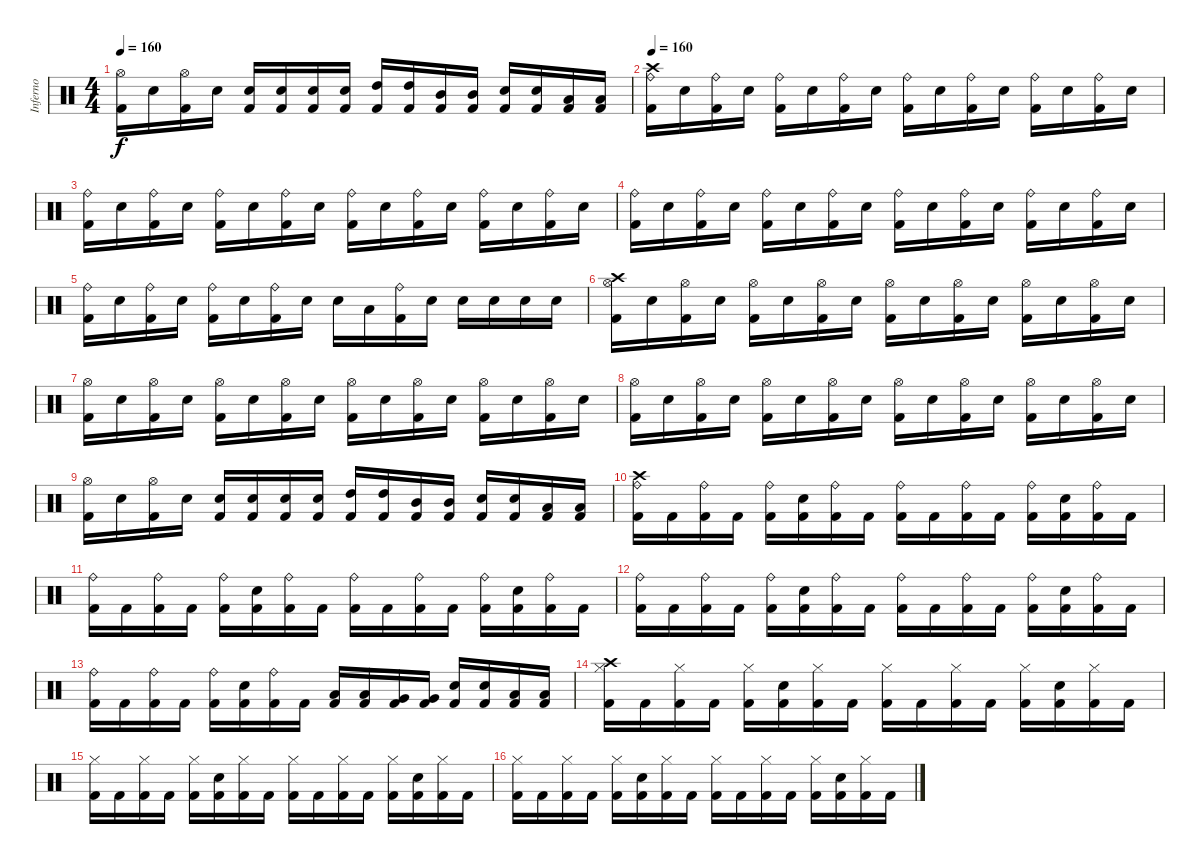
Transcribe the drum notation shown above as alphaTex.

\track ("Inferno" "Inferno") {instrument percussion}
\staff {score}
\articulation defaults
\ts (4 4)
\tempo 160
\clef neutral
\ks c
("Hi-Hat (open)" "Kick (hit) 2").16{dy f} "Electric Snare (hit)".16 ("Hi-Hat (open)" "Kick (hit) 2").16 "Electric Snare (hit)".16 ("Electric Snare (hit)" "Kick (hit) 2").16 ("Electric Snare (hit)" "Kick (hit) 2").16 ("Electric Snare (hit)" "Kick (hit) 2").16 ("Electric Snare (hit)" "Kick (hit) 2").16 ("High Tom (hit)" "Kick (hit) 2").16 ("High Tom (hit)" "Kick (hit) 2").16 ("Mid Tom (hit)" "Kick (hit) 2").16 ("Mid Tom (hit)" "Kick (hit) 2").16 ("Electric Snare (hit)" "Kick (hit) 2").16 ("Electric Snare (hit)" "Kick (hit) 2").16 ("Low Tom (hit)" "Kick (hit) 2").16 ("Low Tom (hit)" "Kick (hit) 2").16 |
\tempo 160
("Crash high (hit)" "Ride (bell)" "Kick (hit) 2").16 "Electric Snare (hit)".16 ("Ride (bell)" "Kick (hit) 2").16 "Electric Snare (hit)".16 ("Ride (bell)" "Kick (hit) 2").16 "Electric Snare (hit)".16 ("Ride (bell)" "Kick (hit) 2").16 "Electric Snare (hit)".16 ("Ride (bell)" "Kick (hit) 2").16 "Electric Snare (hit)".16 ("Ride (bell)" "Kick (hit) 2").16 "Electric Snare (hit)".16 ("Ride (bell)" "Kick (hit) 2").16 "Electric Snare (hit)".16 ("Ride (bell)" "Kick (hit) 2").16 "Electric Snare (hit)".16 |
("Ride (bell)" "Kick (hit) 2").16 "Electric Snare (hit)".16 ("Ride (bell)" "Kick (hit) 2").16 "Electric Snare (hit)".16 ("Ride (bell)" "Kick (hit) 2").16 "Electric Snare (hit)".16 ("Ride (bell)" "Kick (hit) 2").16 "Electric Snare (hit)".16 ("Ride (bell)" "Kick (hit) 2").16 "Electric Snare (hit)".16 ("Ride (bell)" "Kick (hit) 2").16 "Electric Snare (hit)".16 ("Ride (bell)" "Kick (hit) 2").16 "Electric Snare (hit)".16 ("Ride (bell)" "Kick (hit) 2").16 "Electric Snare (hit)".16 |
("Ride (bell)" "Kick (hit) 2").16 "Electric Snare (hit)".16 ("Ride (bell)" "Kick (hit) 2").16 "Electric Snare (hit)".16 ("Ride (bell)" "Kick (hit) 2").16 "Electric Snare (hit)".16 ("Ride (bell)" "Kick (hit) 2").16 "Electric Snare (hit)".16 ("Ride (bell)" "Kick (hit) 2").16 "Electric Snare (hit)".16 ("Ride (bell)" "Kick (hit) 2").16 "Electric Snare (hit)".16 ("Ride (bell)" "Kick (hit) 2").16 "Electric Snare (hit)".16 ("Ride (bell)" "Kick (hit) 2").16 "Electric Snare (hit)".16 |
("Ride (bell)" "Kick (hit) 2").16 "Electric Snare (hit)".16 ("Ride (bell)" "Kick (hit) 2").16 "Electric Snare (hit)".16 ("Ride (bell)" "Kick (hit) 2").16 "Electric Snare (hit)".16 ("Ride (bell)" "Kick (hit) 2").16 "Electric Snare (hit)".16 "Electric Snare (hit)".16 "Low Tom (hit)".16 ("Ride (bell)" "Kick (hit) 2").16 "Electric Snare (hit)".16 "Electric Snare (hit)".16 "Electric Snare (hit)".16 "Electric Snare (hit)".16 "Electric Snare (hit)".16 |
("Crash high (hit)" "Hi-Hat (open)" "Kick (hit) 2").16 "Electric Snare (hit)".16 ("Hi-Hat (open)" "Kick (hit) 2").16 "Electric Snare (hit)".16 ("Hi-Hat (open)" "Kick (hit) 2").16 "Electric Snare (hit)".16 ("Hi-Hat (open)" "Kick (hit) 2").16 "Electric Snare (hit)".16 ("Hi-Hat (open)" "Kick (hit) 2").16 "Electric Snare (hit)".16 ("Hi-Hat (open)" "Kick (hit) 2").16 "Electric Snare (hit)".16 ("Hi-Hat (open)" "Kick (hit) 2").16 "Electric Snare (hit)".16 ("Hi-Hat (open)" "Kick (hit) 2").16 "Electric Snare (hit)".16 |
("Hi-Hat (open)" "Kick (hit) 2").16 "Electric Snare (hit)".16 ("Hi-Hat (open)" "Kick (hit) 2").16 "Electric Snare (hit)".16 ("Hi-Hat (open)" "Kick (hit) 2").16 "Electric Snare (hit)".16 ("Hi-Hat (open)" "Kick (hit) 2").16 "Electric Snare (hit)".16 ("Hi-Hat (open)" "Kick (hit) 2").16 "Electric Snare (hit)".16 ("Hi-Hat (open)" "Kick (hit) 2").16 "Electric Snare (hit)".16 ("Hi-Hat (open)" "Kick (hit) 2").16 "Electric Snare (hit)".16 ("Hi-Hat (open)" "Kick (hit) 2").16 "Electric Snare (hit)".16 |
("Hi-Hat (open)" "Kick (hit) 2").16 "Electric Snare (hit)".16 ("Hi-Hat (open)" "Kick (hit) 2").16 "Electric Snare (hit)".16 ("Hi-Hat (open)" "Kick (hit) 2").16 "Electric Snare (hit)".16 ("Hi-Hat (open)" "Kick (hit) 2").16 "Electric Snare (hit)".16 ("Hi-Hat (open)" "Kick (hit) 2").16 "Electric Snare (hit)".16 ("Hi-Hat (open)" "Kick (hit) 2").16 "Electric Snare (hit)".16 ("Hi-Hat (open)" "Kick (hit) 2").16 "Electric Snare (hit)".16 ("Hi-Hat (open)" "Kick (hit) 2").16 "Electric Snare (hit)".16 |
("Hi-Hat (open)" "Kick (hit) 2").16 "Electric Snare (hit)".16 ("Hi-Hat (open)" "Kick (hit) 2").16 "Electric Snare (hit)".16 ("Electric Snare (hit)" "Kick (hit) 2").16 ("Electric Snare (hit)" "Kick (hit) 2").16 ("Electric Snare (hit)" "Kick (hit) 2").16 ("Electric Snare (hit)" "Kick (hit) 2").16 ("High Tom (hit)" "Kick (hit) 2").16 ("High Tom (hit)" "Kick (hit) 2").16 ("Mid Tom (hit)" "Kick (hit) 2").16 ("Mid Tom (hit)" "Kick (hit) 2").16 ("Electric Snare (hit)" "Kick (hit) 2").16 ("Electric Snare (hit)" "Kick (hit) 2").16 ("Low Tom (hit)" "Kick (hit) 2").16 ("Low Tom (hit)" "Kick (hit) 2").16 |
("Crash high (hit)" "Ride (bell)" "Kick (hit) 2").16 "Kick (hit) 2".16 ("Ride (bell)" "Kick (hit) 2").16 "Kick (hit) 2".16 ("Ride (bell)" "Kick (hit) 2").16 ("Electric Snare (hit)" "Kick (hit) 2").16 ("Ride (bell)" "Kick (hit) 2").16 "Kick (hit) 2".16 ("Ride (bell)" "Kick (hit) 2").16 "Kick (hit) 2".16 ("Ride (bell)" "Kick (hit) 2").16 "Kick (hit) 2".16 ("Ride (bell)" "Kick (hit) 2").16 ("Electric Snare (hit)" "Kick (hit) 2").16 ("Ride (bell)" "Kick (hit) 2").16 "Kick (hit) 2".16 |
("Ride (bell)" "Kick (hit) 2").16 "Kick (hit) 2".16 ("Ride (bell)" "Kick (hit) 2").16 "Kick (hit) 2".16 ("Ride (bell)" "Kick (hit) 2").16 ("Electric Snare (hit)" "Kick (hit) 2").16 ("Ride (bell)" "Kick (hit) 2").16 "Kick (hit) 2".16 ("Ride (bell)" "Kick (hit) 2").16 "Kick (hit) 2".16 ("Ride (bell)" "Kick (hit) 2").16 "Kick (hit) 2".16 ("Ride (bell)" "Kick (hit) 2").16 ("Electric Snare (hit)" "Kick (hit) 2").16 ("Ride (bell)" "Kick (hit) 2").16 "Kick (hit) 2".16 |
("Ride (bell)" "Kick (hit) 2").16 "Kick (hit) 2".16 ("Ride (bell)" "Kick (hit) 2").16 "Kick (hit) 2".16 ("Ride (bell)" "Kick (hit) 2").16 ("Electric Snare (hit)" "Kick (hit) 2").16 ("Ride (bell)" "Kick (hit) 2").16 "Kick (hit) 2".16 ("Ride (bell)" "Kick (hit) 2").16 "Kick (hit) 2".16 ("Ride (bell)" "Kick (hit) 2").16 "Kick (hit) 2".16 ("Ride (bell)" "Kick (hit) 2").16 ("Electric Snare (hit)" "Kick (hit) 2").16 ("Ride (bell)" "Kick (hit) 2").16 "Kick (hit) 2".16 |
("Ride (bell)" "Kick (hit) 2").16 "Kick (hit) 2".16 ("Ride (bell)" "Kick (hit) 2").16 "Kick (hit) 2".16 ("Ride (bell)" "Kick (hit) 2").16 ("Electric Snare (hit)" "Kick (hit) 2").16 ("Ride (bell)" "Kick (hit) 2").16 "Kick (hit) 2".16 ("Low Tom (hit)" "Kick (hit) 2").16 ("Low Tom (hit)" "Kick (hit) 2").16 ("Very Low Tom (hit)" "Kick (hit) 2").16 ("Very Low Tom (hit)" "Kick (hit) 2").16 ("Electric Snare (hit)" "Kick (hit) 2").16 ("Electric Snare (hit)" "Kick (hit) 2").16 ("Low Floor Tom (hit)" "Kick (hit) 2").16 ("Low Floor Tom (hit)" "Kick (hit) 2").16 |
("Crash high (hit)" "Hi-Hat (closed)" "Kick (hit) 2").16 "Kick (hit) 2".16 ("Hi-Hat (closed)" "Kick (hit) 2").16 "Kick (hit) 2".16 ("Hi-Hat (closed)" "Kick (hit) 2").16 ("Electric Snare (hit)" "Kick (hit) 2").16 ("Hi-Hat (closed)" "Kick (hit) 2").16 "Kick (hit) 2".16 ("Hi-Hat (closed)" "Kick (hit) 2").16 "Kick (hit) 2".16 ("Hi-Hat (closed)" "Kick (hit) 2").16 "Kick (hit) 2".16 ("Hi-Hat (closed)" "Kick (hit) 2").16 ("Electric Snare (hit)" "Kick (hit) 2").16 ("Hi-Hat (closed)" "Kick (hit) 2").16 "Kick (hit) 2".16 |
("Hi-Hat (closed)" "Kick (hit) 2").16 "Kick (hit) 2".16 ("Hi-Hat (closed)" "Kick (hit) 2").16 "Kick (hit) 2".16 ("Hi-Hat (closed)" "Kick (hit) 2").16 ("Electric Snare (hit)" "Kick (hit) 2").16 ("Hi-Hat (closed)" "Kick (hit) 2").16 "Kick (hit) 2".16 ("Hi-Hat (closed)" "Kick (hit) 2").16 "Kick (hit) 2".16 ("Hi-Hat (closed)" "Kick (hit) 2").16 "Kick (hit) 2".16 ("Hi-Hat (closed)" "Kick (hit) 2").16 ("Electric Snare (hit)" "Kick (hit) 2").16 ("Hi-Hat (closed)" "Kick (hit) 2").16 "Kick (hit) 2".16 |
("Hi-Hat (closed)" "Kick (hit) 2").16 "Kick (hit) 2".16 ("Hi-Hat (closed)" "Kick (hit) 2").16 "Kick (hit) 2".16 ("Hi-Hat (closed)" "Kick (hit) 2").16 ("Electric Snare (hit)" "Kick (hit) 2").16 ("Hi-Hat (closed)" "Kick (hit) 2").16 "Kick (hit) 2".16 ("Hi-Hat (closed)" "Kick (hit) 2").16 "Kick (hit) 2".16 ("Hi-Hat (closed)" "Kick (hit) 2").16 "Kick (hit) 2".16 ("Hi-Hat (closed)" "Kick (hit) 2").16 ("Electric Snare (hit)" "Kick (hit) 2").16 ("Hi-Hat (closed)" "Kick (hit) 2").16 "Kick (hit) 2".16
